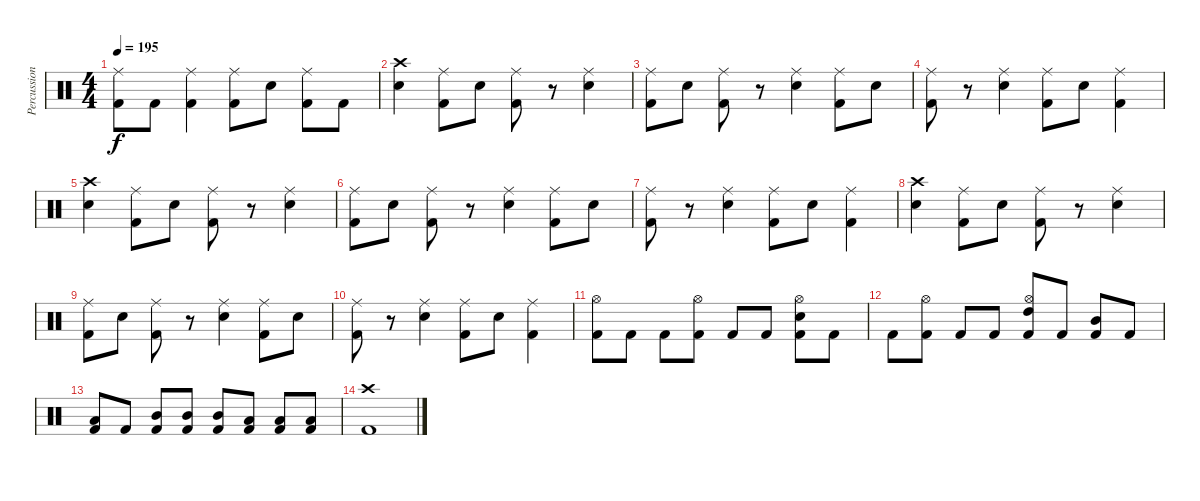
\track ("Percussion" "Percussion") {instrument percussion}
\staff {score}
\articulation defaults
\ts (4 4)
\tempo 195
\clef neutral
\ks c
("Ride (middle)" "Kick (hit) 2").8{dy f} "Kick (hit) 2".8 ("Ride (middle)" "Kick (hit) 2").4 ("Ride (middle)" "Kick (hit) 2").8 "Snare (hit) 2".8 ("Ride (middle)" "Kick (hit) 2").8 "Kick (hit) 2".8 |
("Crash high (hit)" "Snare (hit) 2").4 ("Ride (middle)" "Kick (hit) 2").8 "Snare (hit) 2".8 ("Ride (middle)" "Kick (hit) 2").8 r.8 ("Ride (middle)" "Snare (hit) 2").4 |
("Ride (middle)" "Kick (hit) 2").8 "Snare (hit) 2".8 ("Ride (middle)" "Kick (hit) 2").8 r.8 ("Ride (middle)" "Snare (hit) 2").4 ("Ride (middle)" "Kick (hit) 2").8 "Snare (hit) 2".8 |
("Ride (middle)" "Kick (hit) 2").8 r.8 ("Ride (middle)" "Snare (hit) 2").4 ("Ride (middle)" "Kick (hit) 2").8 "Snare (hit) 2".8 ("Ride (middle)" "Kick (hit) 2").4 |
("Crash high (hit)" "Snare (hit) 2").4 ("Ride (middle)" "Kick (hit) 2").8 "Snare (hit) 2".8 ("Ride (middle)" "Kick (hit) 2").8 r.8 ("Ride (middle)" "Snare (hit) 2").4 |
("Ride (middle)" "Kick (hit) 2").8 "Snare (hit) 2".8 ("Ride (middle)" "Kick (hit) 2").8 r.8 ("Ride (middle)" "Snare (hit) 2").4 ("Ride (middle)" "Kick (hit) 2").8 "Snare (hit) 2".8 |
("Ride (middle)" "Kick (hit) 2").8 r.8 ("Ride (middle)" "Snare (hit) 2").4 ("Ride (middle)" "Kick (hit) 2").8 "Snare (hit) 2".8 ("Ride (middle)" "Kick (hit) 2").4 |
("Crash high (hit)" "Snare (hit) 2").4 ("Ride (middle)" "Kick (hit) 2").8 "Snare (hit) 2".8 ("Ride (middle)" "Kick (hit) 2").8 r.8 ("Ride (middle)" "Snare (hit) 2").4 |
("Ride (middle)" "Kick (hit) 2").8 "Snare (hit) 2".8 ("Ride (middle)" "Kick (hit) 2").8 r.8 ("Ride (middle)" "Snare (hit) 2").4 ("Ride (middle)" "Kick (hit) 2").8 "Snare (hit) 2".8 |
("Ride (middle)" "Kick (hit) 2").8 r.8 ("Ride (middle)" "Snare (hit) 2").4 ("Ride (middle)" "Kick (hit) 2").8 "Snare (hit) 2".8 ("Ride (middle)" "Kick (hit) 2").4 |
("Hi-Hat (open)" "Kick (hit) 2").8 "Kick (hit) 2".8 "Kick (hit) 2".8 ("Hi-Hat (open)" "Kick (hit) 2").8 "Kick (hit) 2".8 "Kick (hit) 2".8 ("Hi-Hat (open)" "Snare (hit) 2" "Kick (hit) 2").8 "Kick (hit) 2".8 |
"Kick (hit) 2".8 ("Hi-Hat (open)" "Kick (hit) 2").8 "Kick (hit) 2".8 "Kick (hit) 2".8 ("Hi-Hat (open)" "High Tom (hit)" "Kick (hit) 2").8 "Kick (hit) 2".8 ("Mid Tom (hit)" "Kick (hit) 2").8 "Kick (hit) 2".8 |
("Low Tom (hit)" "Kick (hit) 2").8 "Kick (hit) 2".8 ("Mid Tom (hit)" "Kick (hit) 2").8 ("Mid Tom (hit)" "Kick (hit) 2").8 ("Mid Tom (hit)" "Kick (hit) 2").8 ("Low Tom (hit)" "Kick (hit) 2").8 ("Low Tom (hit)" "Kick (hit) 2").8 ("Low Tom (hit)" "Kick (hit) 2").8 |
("Crash high (hit)" "Kick (hit) 2").1
